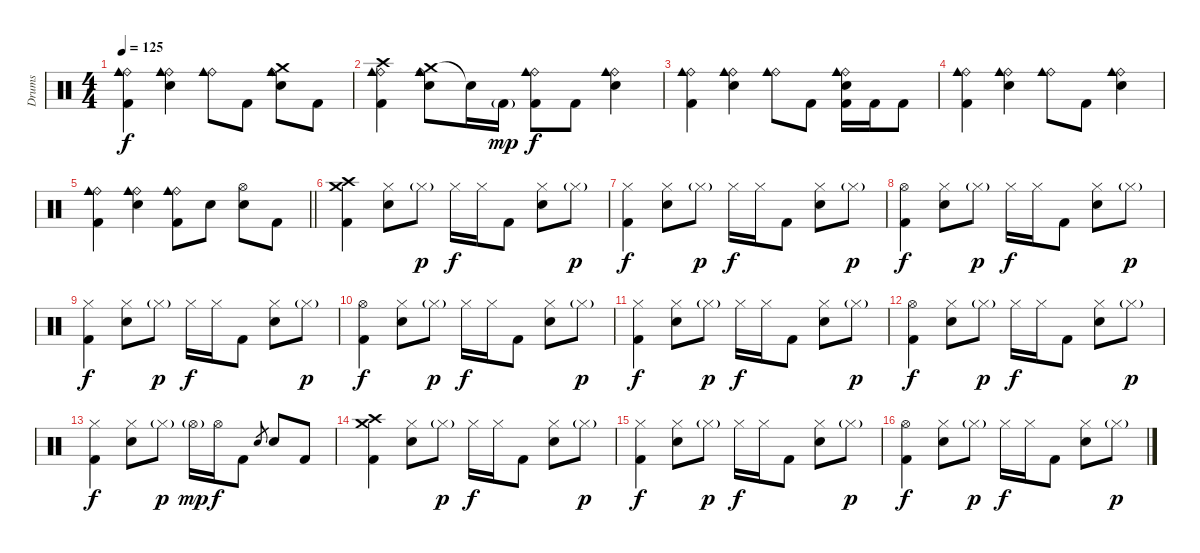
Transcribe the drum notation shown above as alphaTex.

\track ("Drums" "Drums") {instrument percussion}
\staff {score}
\articulation defaults
\ts (4 4)
\tempo 125
\clef neutral
\ks c
("Ride (bell)" "Cowbell medium (hit)" "Kick (hit) 2").4{dy f} ("Ride (bell)" "Cowbell medium (hit)" "Electric Snare (hit)").4 ("Ride (bell)" "Cowbell medium (hit)").8 "Kick (hit) 2".8 ("Crash medium (hit)" "Ride (bell)" "Cowbell medium (hit)" "Electric Snare (hit)").8 "Kick (hit) 2".8 |
("Crash high (hit)" "Ride (bell)" "Cowbell medium (hit)" "Kick (hit) 2").4 ("Crash medium (hit)" "Ride (bell)" "Cowbell medium (hit)" "Electric Snare (hit)").8 "Snare (hit)"{t}.16 "Kick (hit) 2"{g}.16{dy mp} ("Ride (bell)" "Cowbell medium (hit)" "Kick (hit) 2").8{dy f} "Kick (hit) 2".8 ("Ride (bell)" "Cowbell medium (hit)" "Electric Snare (hit)").4 |
("Ride (bell)" "Cowbell medium (hit)" "Kick (hit) 2").4 ("Ride (bell)" "Cowbell medium (hit)" "Electric Snare (hit)").4 ("Ride (bell)" "Cowbell medium (hit)").8 "Kick (hit) 2".8 ("Ride (bell)" "Cowbell medium (hit)" "Electric Snare (hit)" "Kick (hit) 2").16 "Kick (hit) 2".16 "Kick (hit) 2".8 |
("Ride (bell)" "Cowbell medium (hit)" "Kick (hit) 2").4 ("Ride (bell)" "Cowbell medium (hit)" "Electric Snare (hit)").4 ("Ride (bell)" "Cowbell medium (hit)").8 "Kick (hit) 2".8 ("Ride (bell)" "Cowbell medium (hit)" "Electric Snare (hit)").4 |
\barLineRight lightlight
("Ride (bell)" "Cowbell medium (hit)" "Kick (hit) 2").4 ("Ride (bell)" "Cowbell medium (hit)" "Electric Snare (hit)").4 ("Ride (bell)" "Cowbell medium (hit)" "Kick (hit) 2").8 "Electric Snare (hit)".8 ("Hi-Hat (open)" "Electric Snare (hit)").8 "Kick (hit) 2".8 |
("Crash high (hit)" "Crash medium (hit)" "Kick (hit) 2").4 ("Hi-Hat (closed)" "Electric Snare (hit)").8 "Hi-Hat (closed)"{g}.8{dy p} "Hi-Hat (closed)".16{dy f} "Hi-Hat (closed)".16 "Kick (hit) 2".8 ("Hi-Hat (closed)" "Electric Snare (hit)").8 "Hi-Hat (closed)"{g}.8{dy p} |
("Hi-Hat (closed)" "Kick (hit) 2").4{dy f} ("Hi-Hat (closed)" "Electric Snare (hit)").8 "Hi-Hat (closed)"{g}.8{dy p} "Hi-Hat (closed)".16{dy f} "Hi-Hat (closed)".16 "Kick (hit) 2".8 ("Hi-Hat (closed)" "Electric Snare (hit)").8 "Hi-Hat (closed)"{g}.8{dy p} |
("Hi-Hat (open)" "Kick (hit) 2").4{dy f} ("Hi-Hat (closed)" "Electric Snare (hit)").8 "Hi-Hat (closed)"{g}.8{dy p} "Hi-Hat (closed)".16{dy f} "Hi-Hat (closed)".16 "Kick (hit) 2".8 ("Hi-Hat (closed)" "Electric Snare (hit)").8 "Hi-Hat (closed)"{g}.8{dy p} |
("Hi-Hat (closed)" "Kick (hit) 2").4{dy f} ("Hi-Hat (closed)" "Electric Snare (hit)").8 "Hi-Hat (closed)"{g}.8{dy p} "Hi-Hat (closed)".16{dy f} "Hi-Hat (closed)".16 "Kick (hit) 2".8 ("Hi-Hat (closed)" "Electric Snare (hit)").8 "Hi-Hat (closed)"{g}.8{dy p} |
("Hi-Hat (open)" "Kick (hit) 2").4{dy f} ("Hi-Hat (closed)" "Electric Snare (hit)").8 "Hi-Hat (closed)"{g}.8{dy p} "Hi-Hat (closed)".16{dy f} "Hi-Hat (closed)".16 "Kick (hit) 2".8 ("Hi-Hat (closed)" "Electric Snare (hit)").8 "Hi-Hat (closed)"{g}.8{dy p} |
("Hi-Hat (closed)" "Kick (hit) 2").4{dy f} ("Hi-Hat (closed)" "Electric Snare (hit)").8 "Hi-Hat (closed)"{g}.8{dy p} "Hi-Hat (closed)".16{dy f} "Hi-Hat (closed)".16 "Kick (hit) 2".8 ("Hi-Hat (closed)" "Electric Snare (hit)").8 "Hi-Hat (closed)"{g}.8{dy p} |
("Hi-Hat (open)" "Kick (hit) 2").4{dy f} ("Hi-Hat (closed)" "Electric Snare (hit)").8 "Hi-Hat (closed)"{g}.8{dy p} "Hi-Hat (closed)".16{dy f} "Hi-Hat (closed)".16 "Kick (hit) 2".8 ("Hi-Hat (closed)" "Electric Snare (hit)").8 "Hi-Hat (closed)"{g}.8{dy p} |
("Hi-Hat (closed)" "Kick (hit) 2").4{dy f} ("Hi-Hat (closed)" "Electric Snare (hit)").8 "Hi-Hat (closed)"{g}.8{dy p} "Hi-Hat (open)"{g}.16{dy mp} "Hi-Hat (open)".16{dy f} "Kick (hit) 2".8 "Electric Snare (hit)".8{gr} "Electric Snare (hit)".8 "Kick (hit) 2".8 |
("Crash high (hit)" "Crash medium (hit)" "Kick (hit) 2").4 ("Hi-Hat (closed)" "Electric Snare (hit)").8 "Hi-Hat (closed)"{g}.8{dy p} "Hi-Hat (closed)".16{dy f} "Hi-Hat (closed)".16 "Kick (hit) 2".8 ("Hi-Hat (closed)" "Electric Snare (hit)").8 "Hi-Hat (closed)"{g}.8{dy p} |
("Hi-Hat (closed)" "Kick (hit) 2").4{dy f} ("Hi-Hat (closed)" "Electric Snare (hit)").8 "Hi-Hat (closed)"{g}.8{dy p} "Hi-Hat (closed)".16{dy f} "Hi-Hat (closed)".16 "Kick (hit) 2".8 ("Hi-Hat (closed)" "Electric Snare (hit)").8 "Hi-Hat (closed)"{g}.8{dy p} |
("Hi-Hat (open)" "Kick (hit) 2").4{dy f} ("Hi-Hat (closed)" "Electric Snare (hit)").8 "Hi-Hat (closed)"{g}.8{dy p} "Hi-Hat (closed)".16{dy f} "Hi-Hat (closed)".16 "Kick (hit) 2".8 ("Hi-Hat (closed)" "Electric Snare (hit)").8 "Hi-Hat (closed)"{g}.8{dy p}
